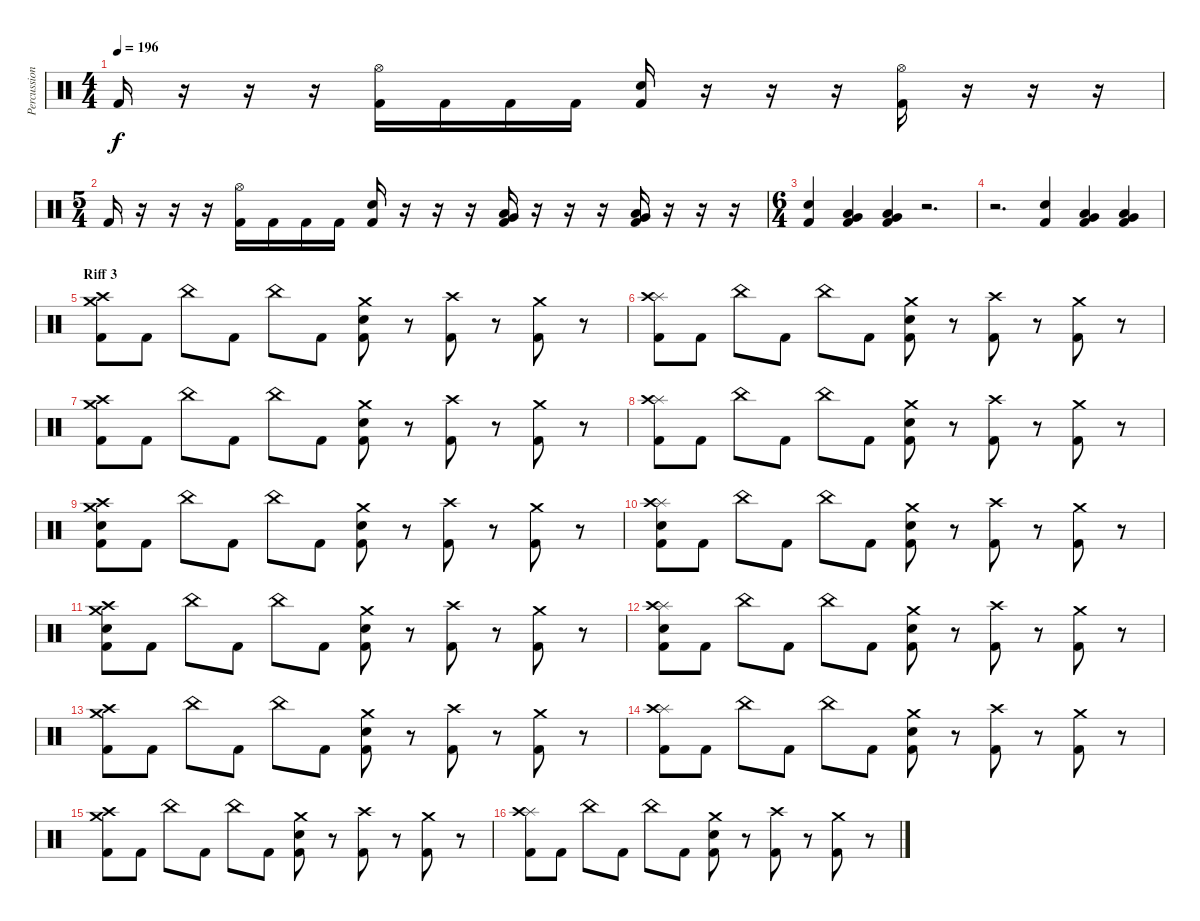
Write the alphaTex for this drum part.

\track ("Percussion" "Percussion") {instrument percussion}
\staff {score}
\articulation defaults
\ts (4 4)
\tempo 196
\clef neutral
\ks c "Kick (hit) 2".16{dy f}
r.16 r.16 r.16 ("Hi-Hat (open)" "Kick (hit) 2").16 "Kick (hit) 2".16 "Kick (hit) 2".16 "Kick (hit) 2".16 ("Electric Snare (hit)" "Kick (hit) 2").16 r.16 r.16 r.16 ("Hi-Hat (open)" "Kick (hit) 2").16 r.16 r.16 r.16 |
\ts (5 4)
"Kick (hit) 2".16 r.16 r.16 r.16 ("Hi-Hat (open)" "Kick (hit) 2").16 "Kick (hit) 2".16 "Kick (hit) 2".16 "Kick (hit) 2".16 ("Electric Snare (hit)" "Kick (hit) 2").16 r.16 r.16 r.16 ("Very Low Tom (hit)" "Low Floor Tom (hit)" "Kick (hit) 2").16 r.16 r.16 r.16 ("Very Low Tom (hit)" "Low Floor Tom (hit)" "Kick (hit) 2").16 r.16 r.16 r.16 |
\ts (6 4)
("Electric Snare (hit)" "Kick (hit) 2").4 ("Very Low Tom (hit)" "Low Floor Tom (hit)" "Kick (hit) 2").4 ("Very Low Tom (hit)" "Low Floor Tom (hit)" "Kick (hit) 2").4 r.2{d} |
r.2{d} ("Electric Snare (hit)" "Kick (hit) 2").4 ("Very Low Tom (hit)" "Low Floor Tom (hit)" "Kick (hit) 2").4 ("Very Low Tom (hit)" "Low Floor Tom (hit)" "Kick (hit) 2").4 |
\section ("" "Riff 3")
("Crash medium (hit)" "Crash high (hit)" "Kick (hit) 2").8 "Kick (hit) 2".8 "China (hit)".8 "Kick (hit) 2".8 "China (hit)".8 "Kick (hit) 2".8 ("Crash medium (hit)" "Electric Snare (hit)" "Kick (hit) 2").8 r.8 ("Crash high (hit)" "Kick (hit) 2").8 r.8 ("Crash medium (hit)" "Kick (hit) 2").8 r.8 |
("Splash (hit)" "Crash high (hit)" "Kick (hit) 2").8 "Kick (hit) 2".8 "China (hit)".8 "Kick (hit) 2".8 "China (hit)".8 "Kick (hit) 2".8 ("Crash medium (hit)" "Electric Snare (hit)" "Kick (hit) 2").8 r.8 ("Crash high (hit)" "Kick (hit) 2").8 r.8 ("Crash medium (hit)" "Kick (hit) 2").8 r.8 |
("Crash medium (hit)" "Crash high (hit)" "Kick (hit) 2").8 "Kick (hit) 2".8 "China (hit)".8 "Kick (hit) 2".8 "China (hit)".8 "Kick (hit) 2".8 ("Crash medium (hit)" "Electric Snare (hit)" "Kick (hit) 2").8 r.8 ("Crash high (hit)" "Kick (hit) 2").8 r.8 ("Crash medium (hit)" "Kick (hit) 2").8 r.8 |
("Splash (hit)" "Crash high (hit)" "Kick (hit) 2").8 "Kick (hit) 2".8 "China (hit)".8 "Kick (hit) 2".8 "China (hit)".8 "Kick (hit) 2".8 ("Crash medium (hit)" "Electric Snare (hit)" "Kick (hit) 2").8 r.8 ("Crash high (hit)" "Kick (hit) 2").8 r.8 ("Crash medium (hit)" "Kick (hit) 2").8 r.8 |
("Crash medium (hit)" "Crash high (hit)" "Electric Snare (hit)" "Kick (hit) 2").8 "Kick (hit) 2".8 "China (hit)".8 "Kick (hit) 2".8 "China (hit)".8 "Kick (hit) 2".8 ("Crash medium (hit)" "Electric Snare (hit)" "Kick (hit) 2").8 r.8 ("Crash high (hit)" "Kick (hit) 2").8 r.8 ("Crash medium (hit)" "Kick (hit) 2").8 r.8 |
("Splash (hit)" "Crash high (hit)" "Electric Snare (hit)" "Kick (hit) 2").8 "Kick (hit) 2".8 "China (hit)".8 "Kick (hit) 2".8 "China (hit)".8 "Kick (hit) 2".8 ("Crash medium (hit)" "Electric Snare (hit)" "Kick (hit) 2").8 r.8 ("Crash high (hit)" "Kick (hit) 2").8 r.8 ("Crash medium (hit)" "Kick (hit) 2").8 r.8 |
("Crash medium (hit)" "Crash high (hit)" "Electric Snare (hit)" "Kick (hit) 2").8 "Kick (hit) 2".8 "China (hit)".8 "Kick (hit) 2".8 "China (hit)".8 "Kick (hit) 2".8 ("Crash medium (hit)" "Electric Snare (hit)" "Kick (hit) 2").8 r.8 ("Crash high (hit)" "Kick (hit) 2").8 r.8 ("Crash medium (hit)" "Kick (hit) 2").8 r.8 |
("Splash (hit)" "Crash high (hit)" "Electric Snare (hit)" "Kick (hit) 2").8 "Kick (hit) 2".8 "China (hit)".8 "Kick (hit) 2".8 "China (hit)".8 "Kick (hit) 2".8 ("Crash medium (hit)" "Electric Snare (hit)" "Kick (hit) 2").8 r.8 ("Crash high (hit)" "Kick (hit) 2").8 r.8 ("Crash medium (hit)" "Kick (hit) 2").8 r.8 |
("Crash medium (hit)" "Crash high (hit)" "Kick (hit) 2").8 "Kick (hit) 2".8 "China (hit)".8 "Kick (hit) 2".8 "China (hit)".8 "Kick (hit) 2".8 ("Crash medium (hit)" "Electric Snare (hit)" "Kick (hit) 2").8 r.8 ("Crash high (hit)" "Kick (hit) 2").8 r.8 ("Crash medium (hit)" "Kick (hit) 2").8 r.8 |
("Splash (hit)" "Crash high (hit)" "Kick (hit) 2").8 "Kick (hit) 2".8 "China (hit)".8 "Kick (hit) 2".8 "China (hit)".8 "Kick (hit) 2".8 ("Crash medium (hit)" "Electric Snare (hit)" "Kick (hit) 2").8 r.8 ("Crash high (hit)" "Kick (hit) 2").8 r.8 ("Crash medium (hit)" "Kick (hit) 2").8 r.8 |
("Crash medium (hit)" "Crash high (hit)" "Kick (hit) 2").8 "Kick (hit) 2".8 "China (hit)".8 "Kick (hit) 2".8 "China (hit)".8 "Kick (hit) 2".8 ("Crash medium (hit)" "Electric Snare (hit)" "Kick (hit) 2").8 r.8 ("Crash high (hit)" "Kick (hit) 2").8 r.8 ("Crash medium (hit)" "Kick (hit) 2").8 r.8 |
("Splash (hit)" "Crash high (hit)" "Kick (hit) 2").8 "Kick (hit) 2".8 "China (hit)".8 "Kick (hit) 2".8 "China (hit)".8 "Kick (hit) 2".8 ("Crash medium (hit)" "Electric Snare (hit)" "Kick (hit) 2").8 r.8 ("Crash high (hit)" "Kick (hit) 2").8 r.8 ("Crash medium (hit)" "Kick (hit) 2").8 r.8
